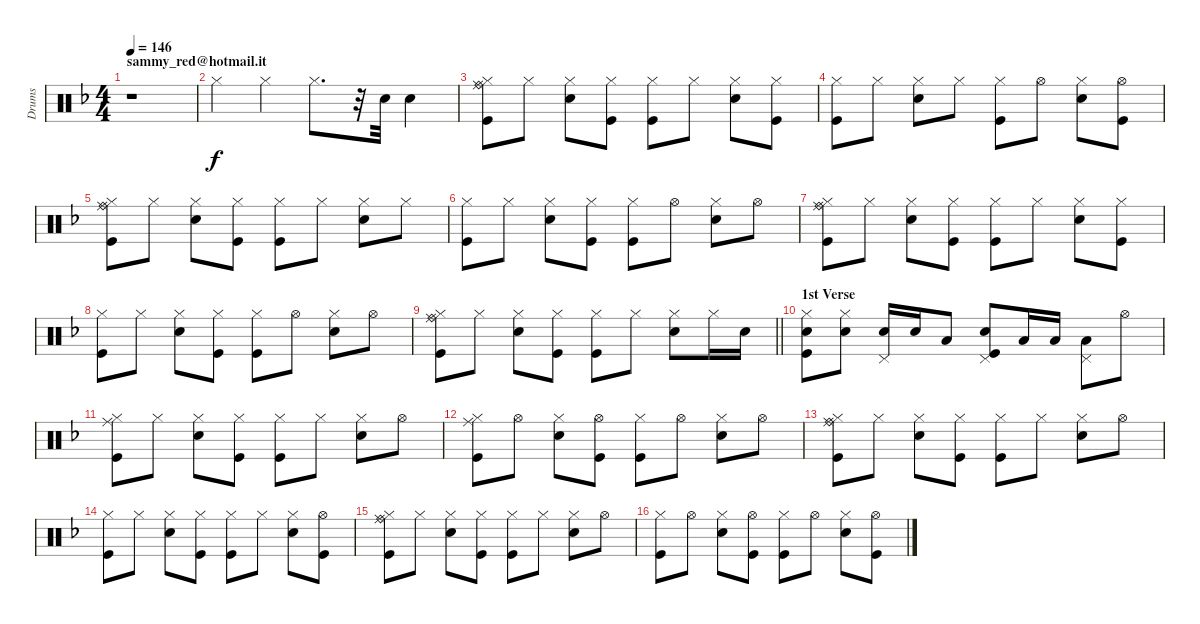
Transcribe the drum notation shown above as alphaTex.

\track ("Drums" "Drums") {instrument percussion}
\staff {score}
\articulation defaults
\ts (4 4)
\section ("" "sammy_red@hotmail.it")
\tempo 146
\clef neutral
\ks f
r.1{dy f} |
"Hi-Hat (closed)".4 "Hi-Hat (closed)".4 "Hi-Hat (closed)".8{d} r.32 "Snare (hit) 2".32 "Snare (hit) 2".4 |
("Kick (hit)" "Hi-Hat (closed)" "Ride (middle)" "Ride (bell)").8 "Hi-Hat (closed)".8 ("Snare (hit) 2" "Hi-Hat (closed)").8 ("Kick (hit)" "Hi-Hat (closed)").8 ("Kick (hit)" "Hi-Hat (closed)").8 "Hi-Hat (closed)".8 ("Snare (hit) 2" "Hi-Hat (closed)").8 ("Kick (hit)" "Hi-Hat (closed)").8 |
("Kick (hit)" "Hi-Hat (closed)").8 "Hi-Hat (closed)".8 ("Snare (hit) 2" "Hi-Hat (closed)").8 "Hi-Hat (closed)".8 ("Kick (hit)" "Hi-Hat (closed)").8 "Hi-Hat (open)".8 ("Snare (hit) 2" "Hi-Hat (closed)").8 ("Kick (hit)" "Hi-Hat (open)").8 |
("Kick (hit)" "Hi-Hat (closed)" "Ride (middle)" "Ride (bell)").8 "Hi-Hat (closed)".8 ("Snare (hit) 2" "Hi-Hat (closed)").8 ("Kick (hit)" "Hi-Hat (closed)").8 ("Kick (hit)" "Hi-Hat (closed)").8 "Hi-Hat (closed)".8 ("Snare (hit) 2" "Hi-Hat (closed)").8 "Hi-Hat (closed)".8 |
("Kick (hit)" "Hi-Hat (closed)").8 "Hi-Hat (closed)".8 ("Snare (hit) 2" "Hi-Hat (closed)").8 ("Kick (hit)" "Hi-Hat (closed)").8 ("Kick (hit)" "Hi-Hat (closed)").8 "Hi-Hat (open)".8 ("Snare (hit) 2" "Hi-Hat (closed)").8 "Hi-Hat (open)".8 |
("Kick (hit)" "Hi-Hat (closed)" "Ride (middle)" "Ride (bell)").8 "Hi-Hat (closed)".8 ("Snare (hit) 2" "Hi-Hat (closed)").8 ("Kick (hit)" "Hi-Hat (closed)").8 ("Kick (hit)" "Hi-Hat (closed)").8 "Hi-Hat (closed)".8 ("Snare (hit) 2" "Hi-Hat (closed)").8 ("Kick (hit)" "Hi-Hat (closed)").8 |
("Kick (hit)" "Hi-Hat (closed)").8 "Hi-Hat (closed)".8 ("Snare (hit) 2" "Hi-Hat (closed)").8 ("Kick (hit)" "Hi-Hat (closed)").8 ("Kick (hit)" "Hi-Hat (closed)").8 "Hi-Hat (open)".8 ("Snare (hit) 2" "Hi-Hat (closed)").8 "Hi-Hat (open)".8 |
\barLineRight lightlight
("Hi-Hat (closed)" "Ride (middle)" "Kick (hit)" "Ride (bell)").8 "Hi-Hat (closed)".8 ("Snare (hit) 2" "Hi-Hat (closed)").8 ("Kick (hit)" "Hi-Hat (closed)").8 ("Kick (hit)" "Hi-Hat (closed)").8 "Hi-Hat (closed)".8 ("Snare (hit) 2" "Hi-Hat (closed)").8 "Hi-Hat (closed)".16 "Snare (hit) 2".16 |
\section ("" "1st Verse")
("Hi-Hat (closed)" "Kick (hit)" "Snare (hit) 2").8 ("Snare (hit) 2" "Hi-Hat (closed)").8 ("Snare (hit) 2" "Pedal Hi-Hat (hit)").16 "Snare (hit) 2".16 "Low Floor Tom (hit)".8 ("Kick (hit)" "Snare (hit) 2" "Pedal Hi-Hat (hit)").8 "Low Tom (hit)".16 "Low Tom (hit)".16 ("Low Floor Tom (hit)" "Pedal Hi-Hat (hit)").8 "Hi-Hat (open)".8 |
("Kick (hit)" "Hi-Hat (closed)" "Ride (middle)").8 "Hi-Hat (closed)".8 ("Snare (hit) 2" "Hi-Hat (closed)").8 ("Kick (hit)" "Hi-Hat (closed)").8 ("Kick (hit)" "Hi-Hat (closed)").8 "Hi-Hat (closed)".8 ("Snare (hit) 2" "Hi-Hat (closed)").8 "Hi-Hat (open)".8 |
("Ride (middle)" "Kick (hit)" "Hi-Hat (closed)").8 "Hi-Hat (open)".8 ("Snare (hit) 2" "Hi-Hat (closed)").8 ("Kick (hit)" "Hi-Hat (open)").8 ("Kick (hit)" "Hi-Hat (closed)").8 "Hi-Hat (open)".8 ("Snare (hit) 2" "Hi-Hat (closed)").8 "Hi-Hat (open)".8 |
("Hi-Hat (closed)" "Ride (middle)" "Kick (hit)" "Ride (bell)").8 "Hi-Hat (closed)".8 ("Snare (hit) 2" "Hi-Hat (closed)").8 ("Kick (hit)" "Hi-Hat (closed)").8 ("Kick (hit)" "Hi-Hat (closed)").8 "Hi-Hat (closed)".8 ("Snare (hit) 2" "Hi-Hat (closed)").8 "Hi-Hat (open)".8 |
("Kick (hit)" "Hi-Hat (closed)").8 "Hi-Hat (closed)".8 ("Snare (hit) 2" "Hi-Hat (closed)").8 ("Kick (hit)" "Hi-Hat (closed)").8 ("Kick (hit)" "Hi-Hat (closed)").8 "Hi-Hat (closed)".8 ("Snare (hit) 2" "Hi-Hat (closed)").8 ("Kick (hit)" "Hi-Hat (open)").8 |
("Ride (bell)" "Kick (hit)" "Ride (middle)" "Hi-Hat (closed)").8 "Hi-Hat (closed)".8 ("Snare (hit) 2" "Hi-Hat (closed)").8 ("Kick (hit)" "Hi-Hat (closed)").8 ("Kick (hit)" "Hi-Hat (closed)").8 "Hi-Hat (closed)".8 ("Snare (hit) 2" "Hi-Hat (closed)").8 "Hi-Hat (open)".8 |
("Kick (hit)" "Hi-Hat (closed)").8 "Hi-Hat (open)".8 ("Snare (hit) 2" "Hi-Hat (closed)").8 ("Kick (hit)" "Hi-Hat (open)").8 ("Kick (hit)" "Hi-Hat (closed)").8 "Hi-Hat (open)".8 ("Snare (hit) 2" "Hi-Hat (closed)").8 ("Kick (hit)" "Hi-Hat (open)").8
